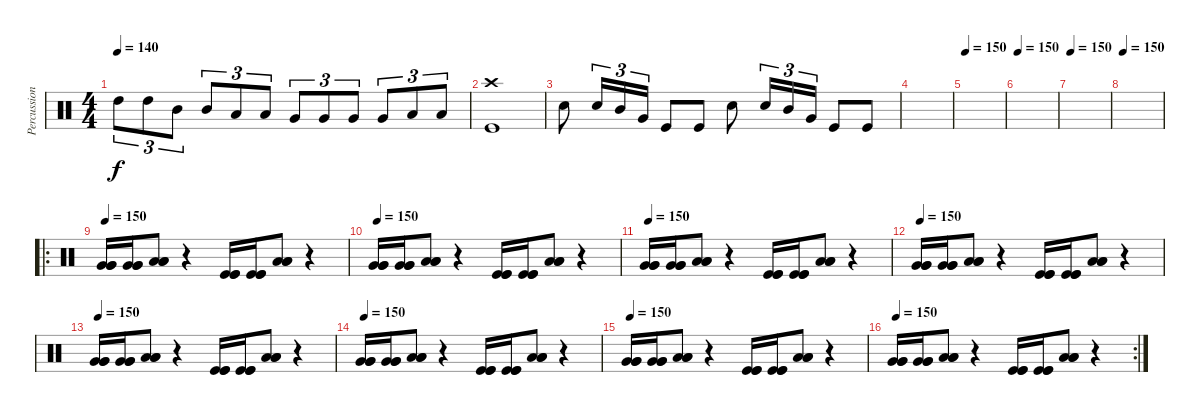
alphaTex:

\track ("Percussions" "Percussion") {instrument percussion}
\staff {score}
\articulation defaults
\ts (4 4)
\tempo 140
\clef neutral
\ks c "High Tom (hit)".8{tu (3 2) dy f} "High Tom (hit)".8{tu (3 2)} "Mid Tom (hit)".8{tu (3 2)} "Mid Tom (hit)".8{tu (3 2)} "Low Tom (hit)".8{tu (3 2)} "Low Tom (hit)".8{tu (3 2)} "Very Low Tom (hit)".8{tu (3 2)} "Very Low Tom (hit)".8{tu (3 2)} "Very Low Tom (hit)".8{tu (3 2)} "Very Low Tom (hit)".8{tu (3 2)} "Low Floor Tom (hit)".8{tu (3 2)} "Low Floor Tom (hit)".8{tu (3 2)}
|
("Crash high (hit)" "Kick (hit)").1 |
"Snare (hit) 2".8 "Snare (hit) 2".16{tu (3 2)} "Mid Tom (hit)".16{tu (3 2)} "Very Low Tom (hit)".16{tu (3 2)} "Kick (hit)".8 "Kick (hit)".8 "Snare (hit) 2".8 "Snare (hit) 2".16{tu (3 2)} "Mid Tom (hit)".16{tu (3 2)} "Very Low Tom (hit)".16{tu (3 2)} "Kick (hit)".8 "Kick (hit)".8 |
|
\tempo 150
|
\tempo 150
|
\tempo 150
|
\tempo 150
|
\ro
\tempo 150
("Very Low Tom (hit)" "Very Low Tom (hit)" "Very Low Tom (hit)").16 ("Very Low Tom (hit)" "Very Low Tom (hit)" "Very Low Tom (hit)").16 ("Low Tom (hit)" "Low Tom (hit)" "Low Tom (hit)").8 r.4 ("Kick (hit)" "Kick (hit)" "Kick (hit)").16 ("Kick (hit)" "Kick (hit)" "Kick (hit)").16 ("Low Tom (hit)" "Low Tom (hit)" "Low Tom (hit)").8 r.4 |
\tempo 150
("Very Low Tom (hit)" "Very Low Tom (hit)" "Very Low Tom (hit)").16 ("Very Low Tom (hit)" "Very Low Tom (hit)" "Very Low Tom (hit)").16 ("Low Tom (hit)" "Low Tom (hit)" "Low Tom (hit)").8 r.4 ("Kick (hit)" "Kick (hit)" "Kick (hit)").16 ("Kick (hit)" "Kick (hit)" "Kick (hit)").16 ("Low Tom (hit)" "Low Tom (hit)" "Low Tom (hit)").8 r.4 |
\tempo 150
("Very Low Tom (hit)" "Very Low Tom (hit)" "Very Low Tom (hit)").16 ("Very Low Tom (hit)" "Very Low Tom (hit)" "Very Low Tom (hit)").16 ("Low Tom (hit)" "Low Tom (hit)" "Low Tom (hit)").8 r.4 ("Kick (hit)" "Kick (hit)" "Kick (hit)").16 ("Kick (hit)" "Kick (hit)" "Kick (hit)").16 ("Low Tom (hit)" "Low Tom (hit)" "Low Tom (hit)").8 r.4 |
\tempo 150
("Very Low Tom (hit)" "Very Low Tom (hit)" "Very Low Tom (hit)").16 ("Very Low Tom (hit)" "Very Low Tom (hit)" "Very Low Tom (hit)").16 ("Low Tom (hit)" "Low Tom (hit)" "Low Tom (hit)").8 r.4 ("Kick (hit)" "Kick (hit)" "Kick (hit)").16 ("Kick (hit)" "Kick (hit)" "Kick (hit)").16 ("Low Tom (hit)" "Low Tom (hit)" "Low Tom (hit)").8 r.4 |
\tempo 150
("Very Low Tom (hit)" "Very Low Tom (hit)" "Very Low Tom (hit)").16 ("Very Low Tom (hit)" "Very Low Tom (hit)" "Very Low Tom (hit)").16 ("Low Tom (hit)" "Low Tom (hit)" "Low Tom (hit)").8 r.4 ("Kick (hit)" "Kick (hit)" "Kick (hit)").16 ("Kick (hit)" "Kick (hit)" "Kick (hit)").16 ("Low Tom (hit)" "Low Tom (hit)" "Low Tom (hit)").8 r.4 |
\tempo 150
("Very Low Tom (hit)" "Very Low Tom (hit)" "Very Low Tom (hit)").16 ("Very Low Tom (hit)" "Very Low Tom (hit)" "Very Low Tom (hit)").16 ("Low Tom (hit)" "Low Tom (hit)" "Low Tom (hit)").8 r.4 ("Kick (hit)" "Kick (hit)" "Kick (hit)").16 ("Kick (hit)" "Kick (hit)" "Kick (hit)").16 ("Low Tom (hit)" "Low Tom (hit)" "Low Tom (hit)").8 r.4 |
\tempo 150
("Very Low Tom (hit)" "Very Low Tom (hit)" "Very Low Tom (hit)").16 ("Very Low Tom (hit)" "Very Low Tom (hit)" "Very Low Tom (hit)").16 ("Low Tom (hit)" "Low Tom (hit)" "Low Tom (hit)").8 r.4 ("Kick (hit)" "Kick (hit)" "Kick (hit)").16 ("Kick (hit)" "Kick (hit)" "Kick (hit)").16 ("Low Tom (hit)" "Low Tom (hit)" "Low Tom (hit)").8 r.4 |
\rc 2
\tempo 150
("Very Low Tom (hit)" "Very Low Tom (hit)" "Very Low Tom (hit)").16 ("Very Low Tom (hit)" "Very Low Tom (hit)" "Very Low Tom (hit)").16 ("Low Tom (hit)" "Low Tom (hit)" "Low Tom (hit)").8 r.4 ("Kick (hit)" "Kick (hit)" "Kick (hit)").16 ("Kick (hit)" "Kick (hit)" "Kick (hit)").16 ("Low Tom (hit)" "Low Tom (hit)" "Low Tom (hit)").8 r.4
